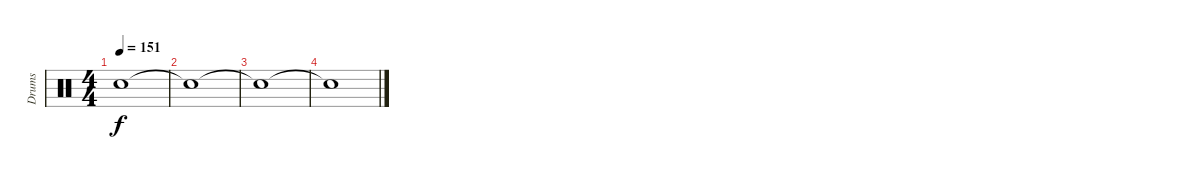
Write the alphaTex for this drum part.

\track ("Drums" "Drums") {instrument percussion}
\staff {score}
\articulation defaults
\ts (4 4)
\tempo 151
\clef neutral
\ks c "Snare (hit)"{t}.1{dy f}
|
"Snare (hit)"{t}.1 |
"Snare (hit)"{t}.1{volume 0} |
"Snare (hit)"{t}.1
